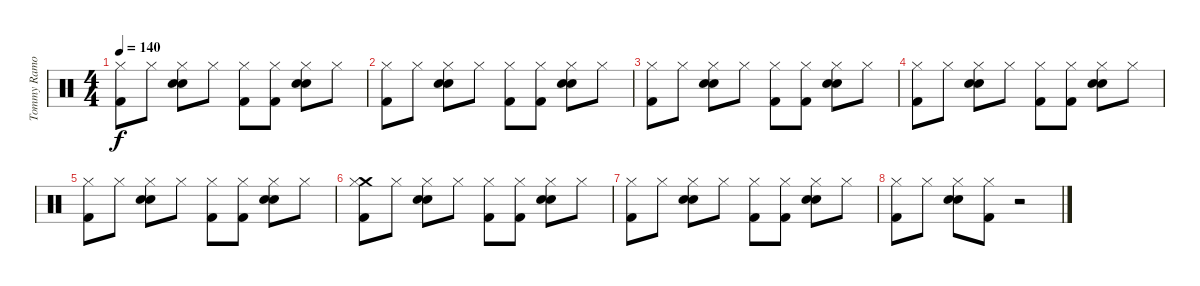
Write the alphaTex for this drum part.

\track ("Tommy Ramone" "Tommy Ramo") {instrument percussion}
\staff {score}
\articulation defaults
\ts (4 4)
\tempo 140
\clef neutral
\ks c
("Kick (hit) 2" "Hi-Hat (closed)").8{dy f} "Hi-Hat (closed)".8 ("Electric Snare (hit)" "Snare (hit) 2" "Hi-Hat (closed)").8 "Hi-Hat (closed)".8 ("Kick (hit) 2" "Hi-Hat (closed)").8 ("Kick (hit) 2" "Hi-Hat (closed)").8 ("Electric Snare (hit)" "Snare (hit) 2" "Hi-Hat (closed)").8 "Hi-Hat (closed)".8 |
("Kick (hit) 2" "Hi-Hat (closed)").8 "Hi-Hat (closed)".8 ("Electric Snare (hit)" "Snare (hit) 2" "Hi-Hat (closed)").8 "Hi-Hat (closed)".8 ("Kick (hit) 2" "Hi-Hat (closed)").8 ("Kick (hit) 2" "Hi-Hat (closed)").8 ("Electric Snare (hit)" "Snare (hit) 2" "Hi-Hat (closed)").8 "Hi-Hat (closed)".8 |
("Kick (hit) 2" "Hi-Hat (closed)").8 "Hi-Hat (closed)".8 ("Electric Snare (hit)" "Snare (hit) 2" "Hi-Hat (closed)").8 "Hi-Hat (closed)".8 ("Kick (hit) 2" "Hi-Hat (closed)").8 ("Kick (hit) 2" "Hi-Hat (closed)").8 ("Electric Snare (hit)" "Snare (hit) 2" "Hi-Hat (closed)").8 "Hi-Hat (closed)".8 |
("Kick (hit) 2" "Hi-Hat (closed)").8 "Hi-Hat (closed)".8 ("Electric Snare (hit)" "Snare (hit) 2" "Hi-Hat (closed)").8 "Hi-Hat (closed)".8 ("Kick (hit) 2" "Hi-Hat (closed)").8 ("Kick (hit) 2" "Hi-Hat (closed)").8 ("Electric Snare (hit)" "Snare (hit) 2" "Hi-Hat (closed)").8 "Hi-Hat (closed)".8 |
("Kick (hit) 2" "Hi-Hat (closed)").8 "Hi-Hat (closed)".8 ("Electric Snare (hit)" "Snare (hit) 2" "Hi-Hat (closed)").8 "Hi-Hat (closed)".8 ("Kick (hit) 2" "Hi-Hat (closed)").8 ("Kick (hit) 2" "Hi-Hat (closed)").8 ("Electric Snare (hit)" "Snare (hit) 2" "Hi-Hat (closed)").8 "Hi-Hat (closed)".8 |
("Crash medium (hit)" "Kick (hit) 2" "Hi-Hat (closed)").8 "Hi-Hat (closed)".8 ("Electric Snare (hit)" "Snare (hit) 2" "Hi-Hat (closed)").8 "Hi-Hat (closed)".8 ("Kick (hit) 2" "Hi-Hat (closed)").8 ("Kick (hit) 2" "Hi-Hat (closed)").8 ("Electric Snare (hit)" "Snare (hit) 2" "Hi-Hat (closed)").8 "Hi-Hat (closed)".8 |
("Kick (hit) 2" "Hi-Hat (closed)").8 "Hi-Hat (closed)".8 ("Electric Snare (hit)" "Snare (hit) 2" "Hi-Hat (closed)").8 "Hi-Hat (closed)".8 ("Kick (hit) 2" "Hi-Hat (closed)").8 ("Kick (hit) 2" "Hi-Hat (closed)").8 ("Electric Snare (hit)" "Snare (hit) 2" "Hi-Hat (closed)").8 "Hi-Hat (closed)".8 |
("Kick (hit) 2" "Hi-Hat (closed)").8 "Hi-Hat (closed)".8 ("Electric Snare (hit)" "Snare (hit) 2" "Hi-Hat (closed)").8 ("Kick (hit) 2" "Hi-Hat (closed)").8 r.2
